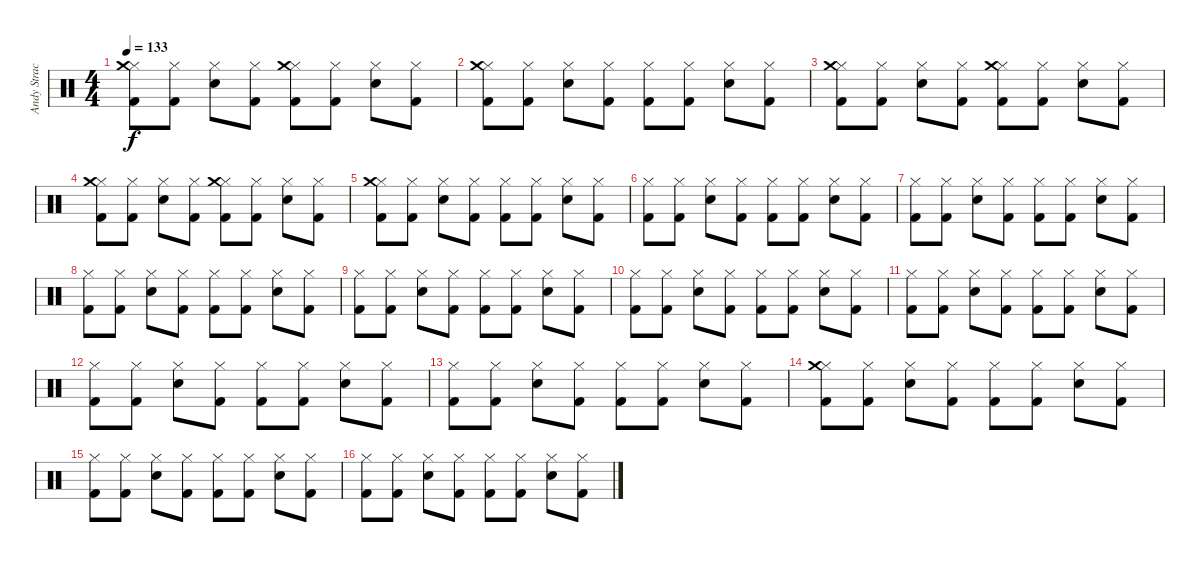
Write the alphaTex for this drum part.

\track ("Andy Strachan" "Andy Strac") {instrument percussion}
\staff {score}
\articulation defaults
\ts (4 4)
\tempo 133
\clef neutral
\ks c
("Hi-Hat (closed)" "Kick (hit) 2" "Crash medium (hit)").8{dy f} ("Hi-Hat (closed)" "Kick (hit) 2").8 ("Electric Snare (hit)" "Hi-Hat (closed)").8 ("Hi-Hat (closed)" "Kick (hit) 2").8 ("Hi-Hat (closed)" "Kick (hit) 2" "Crash medium (hit)").8 ("Hi-Hat (closed)" "Kick (hit) 2").8 ("Electric Snare (hit)" "Hi-Hat (closed)").8 ("Hi-Hat (closed)" "Kick (hit) 2").8 |
("Hi-Hat (closed)" "Kick (hit) 2" "Crash medium (hit)").8 ("Hi-Hat (closed)" "Kick (hit) 2").8 ("Electric Snare (hit)" "Hi-Hat (closed)").8 ("Hi-Hat (closed)" "Kick (hit) 2").8 ("Hi-Hat (closed)" "Kick (hit) 2").8 ("Hi-Hat (closed)" "Kick (hit) 2").8 ("Electric Snare (hit)" "Hi-Hat (closed)").8 ("Hi-Hat (closed)" "Kick (hit) 2").8 |
("Hi-Hat (closed)" "Kick (hit) 2" "Crash medium (hit)").8 ("Hi-Hat (closed)" "Kick (hit) 2").8 ("Electric Snare (hit)" "Hi-Hat (closed)").8 ("Hi-Hat (closed)" "Kick (hit) 2").8 ("Hi-Hat (closed)" "Kick (hit) 2" "Crash medium (hit)").8 ("Hi-Hat (closed)" "Kick (hit) 2").8 ("Electric Snare (hit)" "Hi-Hat (closed)").8 ("Hi-Hat (closed)" "Kick (hit) 2").8 |
("Hi-Hat (closed)" "Kick (hit) 2" "Crash medium (hit)").8 ("Hi-Hat (closed)" "Kick (hit) 2").8 ("Electric Snare (hit)" "Hi-Hat (closed)").8 ("Hi-Hat (closed)" "Kick (hit) 2").8 ("Hi-Hat (closed)" "Kick (hit) 2" "Crash medium (hit)").8 ("Hi-Hat (closed)" "Kick (hit) 2").8 ("Electric Snare (hit)" "Hi-Hat (closed)").8 ("Hi-Hat (closed)" "Kick (hit) 2").8 |
("Hi-Hat (closed)" "Kick (hit) 2" "Crash medium (hit)").8 ("Hi-Hat (closed)" "Kick (hit) 2").8 ("Electric Snare (hit)" "Hi-Hat (closed)").8 ("Hi-Hat (closed)" "Kick (hit) 2").8 ("Hi-Hat (closed)" "Kick (hit) 2").8 ("Hi-Hat (closed)" "Kick (hit) 2").8 ("Electric Snare (hit)" "Hi-Hat (closed)").8 ("Hi-Hat (closed)" "Kick (hit) 2").8 |
("Hi-Hat (closed)" "Kick (hit) 2").8 ("Hi-Hat (closed)" "Kick (hit) 2").8 ("Electric Snare (hit)" "Hi-Hat (closed)").8 ("Hi-Hat (closed)" "Kick (hit) 2").8 ("Hi-Hat (closed)" "Kick (hit) 2").8 ("Hi-Hat (closed)" "Kick (hit) 2").8 ("Electric Snare (hit)" "Hi-Hat (closed)").8 ("Hi-Hat (closed)" "Kick (hit) 2").8 |
("Hi-Hat (closed)" "Kick (hit) 2").8 ("Hi-Hat (closed)" "Kick (hit) 2").8 ("Electric Snare (hit)" "Hi-Hat (closed)").8 ("Hi-Hat (closed)" "Kick (hit) 2").8 ("Hi-Hat (closed)" "Kick (hit) 2").8 ("Hi-Hat (closed)" "Kick (hit) 2").8 ("Electric Snare (hit)" "Hi-Hat (closed)").8 ("Hi-Hat (closed)" "Kick (hit) 2").8 |
("Hi-Hat (closed)" "Kick (hit) 2").8 ("Hi-Hat (closed)" "Kick (hit) 2").8 ("Electric Snare (hit)" "Hi-Hat (closed)").8 ("Hi-Hat (closed)" "Kick (hit) 2").8 ("Hi-Hat (closed)" "Kick (hit) 2").8 ("Hi-Hat (closed)" "Kick (hit) 2").8 ("Electric Snare (hit)" "Hi-Hat (closed)").8 ("Hi-Hat (closed)" "Kick (hit) 2").8 |
("Hi-Hat (closed)" "Kick (hit) 2").8 ("Hi-Hat (closed)" "Kick (hit) 2").8 ("Electric Snare (hit)" "Hi-Hat (closed)").8 ("Hi-Hat (closed)" "Kick (hit) 2").8 ("Hi-Hat (closed)" "Kick (hit) 2").8 ("Hi-Hat (closed)" "Kick (hit) 2").8 ("Electric Snare (hit)" "Hi-Hat (closed)").8 ("Hi-Hat (closed)" "Kick (hit) 2").8 |
("Hi-Hat (closed)" "Kick (hit) 2").8 ("Hi-Hat (closed)" "Kick (hit) 2").8 ("Electric Snare (hit)" "Hi-Hat (closed)").8 ("Hi-Hat (closed)" "Kick (hit) 2").8 ("Hi-Hat (closed)" "Kick (hit) 2").8 ("Hi-Hat (closed)" "Kick (hit) 2").8 ("Electric Snare (hit)" "Hi-Hat (closed)").8 ("Hi-Hat (closed)" "Kick (hit) 2").8 |
("Hi-Hat (closed)" "Kick (hit) 2").8 ("Hi-Hat (closed)" "Kick (hit) 2").8 ("Electric Snare (hit)" "Hi-Hat (closed)").8 ("Hi-Hat (closed)" "Kick (hit) 2").8 ("Hi-Hat (closed)" "Kick (hit) 2").8 ("Hi-Hat (closed)" "Kick (hit) 2").8 ("Electric Snare (hit)" "Hi-Hat (closed)").8 ("Hi-Hat (closed)" "Kick (hit) 2").8 |
("Hi-Hat (closed)" "Kick (hit) 2").8 ("Hi-Hat (closed)" "Kick (hit) 2").8 ("Electric Snare (hit)" "Hi-Hat (closed)").8 ("Hi-Hat (closed)" "Kick (hit) 2").8 ("Hi-Hat (closed)" "Kick (hit) 2").8 ("Hi-Hat (closed)" "Kick (hit) 2").8 ("Electric Snare (hit)" "Hi-Hat (closed)").8 ("Hi-Hat (closed)" "Kick (hit) 2").8 |
("Hi-Hat (closed)" "Kick (hit) 2").8 ("Hi-Hat (closed)" "Kick (hit) 2").8 ("Electric Snare (hit)" "Hi-Hat (closed)").8 ("Hi-Hat (closed)" "Kick (hit) 2").8 ("Hi-Hat (closed)" "Kick (hit) 2").8 ("Hi-Hat (closed)" "Kick (hit) 2").8 ("Electric Snare (hit)" "Hi-Hat (closed)").8 ("Hi-Hat (closed)" "Kick (hit) 2").8 |
("Hi-Hat (closed)" "Kick (hit) 2" "Crash medium (hit)").8 ("Hi-Hat (closed)" "Kick (hit) 2").8 ("Electric Snare (hit)" "Hi-Hat (closed)").8 ("Hi-Hat (closed)" "Kick (hit) 2").8 ("Hi-Hat (closed)" "Kick (hit) 2").8 ("Hi-Hat (closed)" "Kick (hit) 2").8 ("Electric Snare (hit)" "Hi-Hat (closed)").8 ("Hi-Hat (closed)" "Kick (hit) 2").8 |
("Hi-Hat (closed)" "Kick (hit) 2").8 ("Hi-Hat (closed)" "Kick (hit) 2").8 ("Electric Snare (hit)" "Hi-Hat (closed)").8 ("Hi-Hat (closed)" "Kick (hit) 2").8 ("Hi-Hat (closed)" "Kick (hit) 2").8 ("Hi-Hat (closed)" "Kick (hit) 2").8 ("Electric Snare (hit)" "Hi-Hat (closed)").8 ("Hi-Hat (closed)" "Kick (hit) 2").8 |
("Hi-Hat (closed)" "Kick (hit) 2").8 ("Hi-Hat (closed)" "Kick (hit) 2").8 ("Electric Snare (hit)" "Hi-Hat (closed)").8 ("Hi-Hat (closed)" "Kick (hit) 2").8 ("Hi-Hat (closed)" "Kick (hit) 2").8 ("Hi-Hat (closed)" "Kick (hit) 2").8 ("Electric Snare (hit)" "Hi-Hat (closed)").8 ("Hi-Hat (closed)" "Kick (hit) 2").8
